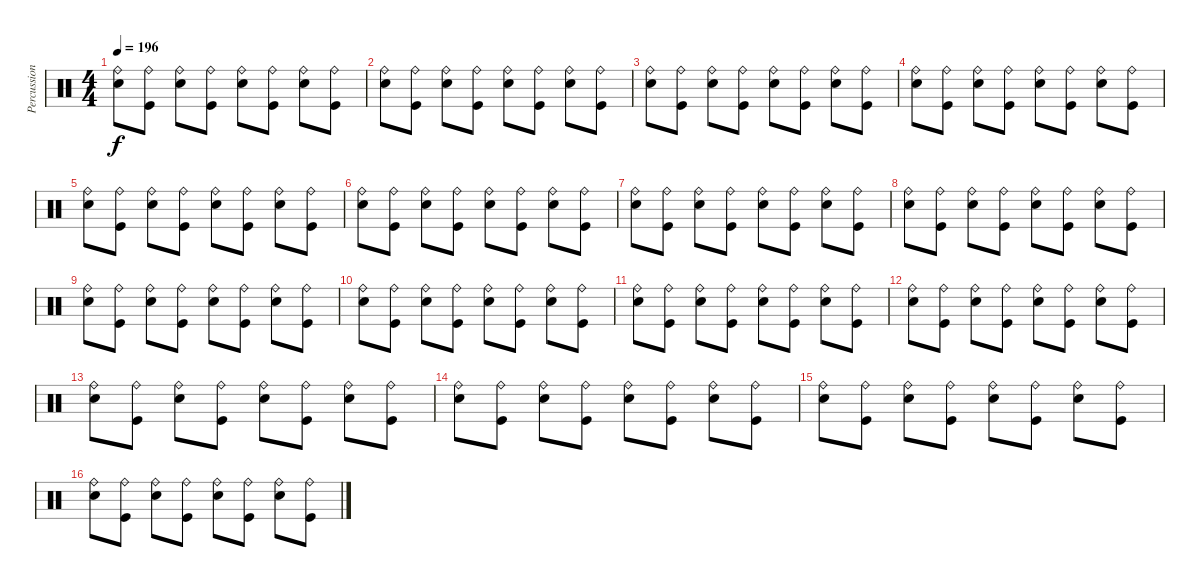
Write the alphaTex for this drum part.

\track ("Percussions" "Percussion") {instrument percussion}
\staff {score}
\articulation defaults
\ts (4 4)
\tempo 196
\clef neutral
\ks c
("Electric Snare (hit)" "Ride (bell)").8{dy f} ("Kick (hit)" "Ride (bell)").8 ("Electric Snare (hit)" "Ride (bell)").8 ("Kick (hit)" "Ride (bell)").8 ("Electric Snare (hit)" "Ride (bell)").8 ("Kick (hit)" "Ride (bell)").8 ("Electric Snare (hit)" "Ride (bell)").8 ("Kick (hit)" "Ride (bell)").8 |
("Electric Snare (hit)" "Ride (bell)").8 ("Kick (hit)" "Ride (bell)").8 ("Electric Snare (hit)" "Ride (bell)").8 ("Kick (hit)" "Ride (bell)").8 ("Electric Snare (hit)" "Ride (bell)").8 ("Kick (hit)" "Ride (bell)").8 ("Electric Snare (hit)" "Ride (bell)").8 ("Kick (hit)" "Ride (bell)").8 |
("Electric Snare (hit)" "Ride (bell)").8 ("Kick (hit)" "Ride (bell)").8 ("Electric Snare (hit)" "Ride (bell)").8 ("Kick (hit)" "Ride (bell)").8 ("Electric Snare (hit)" "Ride (bell)").8 ("Kick (hit)" "Ride (bell)").8 ("Electric Snare (hit)" "Ride (bell)").8 ("Kick (hit)" "Ride (bell)").8 |
("Electric Snare (hit)" "Ride (bell)").8 ("Kick (hit)" "Ride (bell)").8 ("Electric Snare (hit)" "Ride (bell)").8 ("Kick (hit)" "Ride (bell)").8 ("Electric Snare (hit)" "Ride (bell)").8 ("Kick (hit)" "Ride (bell)").8 ("Electric Snare (hit)" "Ride (bell)").8 ("Kick (hit)" "Ride (bell)").8 |
("Electric Snare (hit)" "Ride (bell)").8 ("Kick (hit)" "Ride (bell)").8 ("Electric Snare (hit)" "Ride (bell)").8 ("Kick (hit)" "Ride (bell)").8 ("Electric Snare (hit)" "Ride (bell)").8 ("Kick (hit)" "Ride (bell)").8 ("Electric Snare (hit)" "Ride (bell)").8 ("Kick (hit)" "Ride (bell)").8 |
("Electric Snare (hit)" "Ride (bell)").8 ("Kick (hit)" "Ride (bell)").8 ("Electric Snare (hit)" "Ride (bell)").8 ("Kick (hit)" "Ride (bell)").8 ("Electric Snare (hit)" "Ride (bell)").8 ("Kick (hit)" "Ride (bell)").8 ("Electric Snare (hit)" "Ride (bell)").8 ("Kick (hit)" "Ride (bell)").8 |
("Electric Snare (hit)" "Ride (bell)").8 ("Kick (hit)" "Ride (bell)").8 ("Electric Snare (hit)" "Ride (bell)").8 ("Kick (hit)" "Ride (bell)").8 ("Electric Snare (hit)" "Ride (bell)").8 ("Kick (hit)" "Ride (bell)").8 ("Electric Snare (hit)" "Ride (bell)").8 ("Kick (hit)" "Ride (bell)").8 |
("Electric Snare (hit)" "Ride (bell)").8 ("Kick (hit)" "Ride (bell)").8 ("Electric Snare (hit)" "Ride (bell)").8 ("Kick (hit)" "Ride (bell)").8 ("Electric Snare (hit)" "Ride (bell)").8 ("Kick (hit)" "Ride (bell)").8 ("Electric Snare (hit)" "Ride (bell)").8 ("Kick (hit)" "Ride (bell)").8 |
("Electric Snare (hit)" "Ride (bell)").8 ("Kick (hit)" "Ride (bell)").8 ("Electric Snare (hit)" "Ride (bell)").8 ("Kick (hit)" "Ride (bell)").8 ("Electric Snare (hit)" "Ride (bell)").8 ("Kick (hit)" "Ride (bell)").8 ("Electric Snare (hit)" "Ride (bell)").8 ("Kick (hit)" "Ride (bell)").8 |
("Electric Snare (hit)" "Ride (bell)").8 ("Kick (hit)" "Ride (bell)").8 ("Electric Snare (hit)" "Ride (bell)").8 ("Kick (hit)" "Ride (bell)").8 ("Electric Snare (hit)" "Ride (bell)").8 ("Kick (hit)" "Ride (bell)").8 ("Electric Snare (hit)" "Ride (bell)").8 ("Kick (hit)" "Ride (bell)").8 |
("Electric Snare (hit)" "Ride (bell)").8 ("Kick (hit)" "Ride (bell)").8 ("Electric Snare (hit)" "Ride (bell)").8 ("Kick (hit)" "Ride (bell)").8 ("Electric Snare (hit)" "Ride (bell)").8 ("Kick (hit)" "Ride (bell)").8 ("Electric Snare (hit)" "Ride (bell)").8 ("Kick (hit)" "Ride (bell)").8 |
("Electric Snare (hit)" "Ride (bell)").8 ("Kick (hit)" "Ride (bell)").8 ("Electric Snare (hit)" "Ride (bell)").8 ("Kick (hit)" "Ride (bell)").8 ("Electric Snare (hit)" "Ride (bell)").8 ("Kick (hit)" "Ride (bell)").8 ("Electric Snare (hit)" "Ride (bell)").8 ("Kick (hit)" "Ride (bell)").8 |
("Electric Snare (hit)" "Ride (bell)").8 ("Kick (hit)" "Ride (bell)").8 ("Electric Snare (hit)" "Ride (bell)").8 ("Kick (hit)" "Ride (bell)").8 ("Electric Snare (hit)" "Ride (bell)").8 ("Kick (hit)" "Ride (bell)").8 ("Electric Snare (hit)" "Ride (bell)").8 ("Kick (hit)" "Ride (bell)").8 |
("Electric Snare (hit)" "Ride (bell)").8 ("Kick (hit)" "Ride (bell)").8 ("Electric Snare (hit)" "Ride (bell)").8 ("Kick (hit)" "Ride (bell)").8 ("Electric Snare (hit)" "Ride (bell)").8 ("Kick (hit)" "Ride (bell)").8 ("Electric Snare (hit)" "Ride (bell)").8 ("Kick (hit)" "Ride (bell)").8 |
("Electric Snare (hit)" "Ride (bell)").8 ("Kick (hit)" "Ride (bell)").8 ("Electric Snare (hit)" "Ride (bell)").8 ("Kick (hit)" "Ride (bell)").8 ("Electric Snare (hit)" "Ride (bell)").8 ("Kick (hit)" "Ride (bell)").8 ("Electric Snare (hit)" "Ride (bell)").8 ("Kick (hit)" "Ride (bell)").8 |
("Electric Snare (hit)" "Ride (bell)").8 ("Kick (hit)" "Ride (bell)").8 ("Electric Snare (hit)" "Ride (bell)").8 ("Kick (hit)" "Ride (bell)").8 ("Electric Snare (hit)" "Ride (bell)").8 ("Kick (hit)" "Ride (bell)").8 ("Electric Snare (hit)" "Ride (bell)").8 ("Kick (hit)" "Ride (bell)").8
